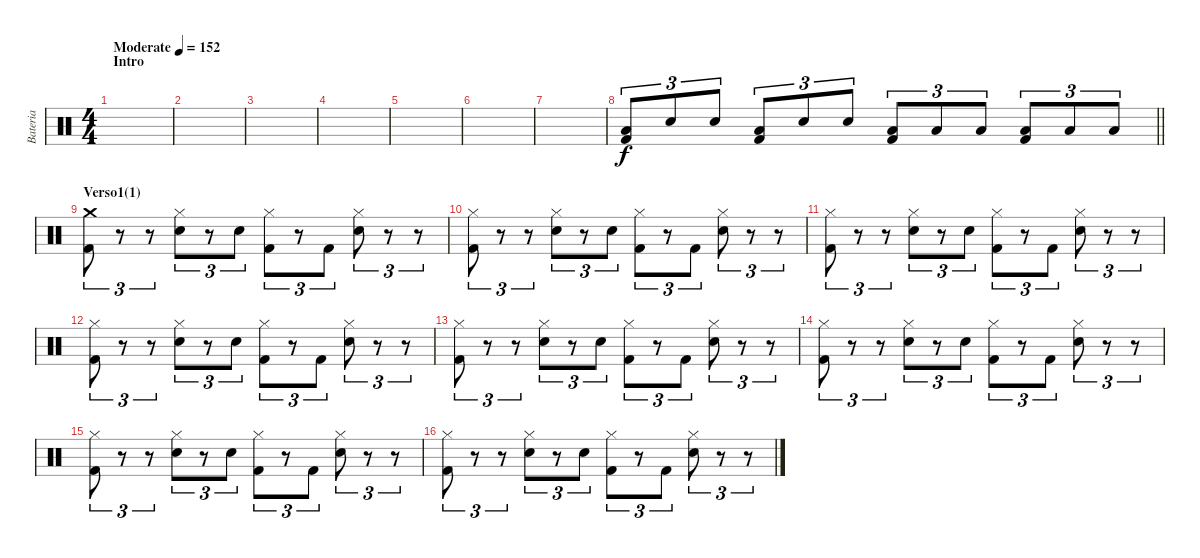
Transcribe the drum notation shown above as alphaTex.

\track ("Bateria" "Bateria") {instrument percussion}
\staff {score}
\articulation defaults
\ts (4 4)
\section ("" "Intro")
\tempo (152 "Moderate")
\clef neutral
\ks c
|
|
|
|
|
|
|
\barLineRight lightlight
("Low Floor Tom (hit)" "Kick (hit) 2").8{tu (3 2)} "Snare (hit) 2".8{tu (3 2)} "Snare (hit) 2".8{tu (3 2)} ("Low Floor Tom (hit)" "Kick (hit) 2").8{tu (3 2)} "Snare (hit) 2".8{tu (3 2)} "Snare (hit) 2".8{tu (3 2)} ("Low Floor Tom (hit)" "Kick (hit) 2").8{tu (3 2)} "Low Tom (hit)".8{tu (3 2)} "Low Tom (hit)".8{tu (3 2)} ("Low Floor Tom (hit)" "Kick (hit) 2").8{tu (3 2)} "Low Floor Tom (hit)".8{tu (3 2)} "Low Floor Tom (hit)".8{tu (3 2)} |
\section ("" "Verso1(1)")
("Crash medium (hit)" "Kick (hit) 2").8{tu (3 2)} r.8{tu (3 2)} r.8{tu (3 2)} ("Hi-Hat (closed)" "Snare (hit) 2").8{tu (3 2)} r.8{tu (3 2)} "Snare (hit) 2".8{tu (3 2)} ("Hi-Hat (closed)" "Kick (hit) 2").8{tu (3 2)} r.8{tu (3 2)} "Kick (hit) 2".8{tu (3 2)} ("Hi-Hat (closed)" "Snare (hit) 2").8{tu (3 2)} r.8{tu (3 2)} r.8{tu (3 2)} |
("Hi-Hat (closed)" "Kick (hit) 2").8{tu (3 2)} r.8{tu (3 2)} r.8{tu (3 2)} ("Hi-Hat (closed)" "Snare (hit) 2").8{tu (3 2)} r.8{tu (3 2)} "Snare (hit) 2".8{tu (3 2)} ("Hi-Hat (closed)" "Kick (hit) 2").8{tu (3 2)} r.8{tu (3 2)} "Kick (hit) 2".8{tu (3 2)} ("Hi-Hat (closed)" "Snare (hit) 2").8{tu (3 2)} r.8{tu (3 2)} r.8{tu (3 2)} |
("Hi-Hat (closed)" "Kick (hit) 2").8{tu (3 2)} r.8{tu (3 2)} r.8{tu (3 2)} ("Hi-Hat (closed)" "Snare (hit) 2").8{tu (3 2)} r.8{tu (3 2)} "Snare (hit) 2".8{tu (3 2)} ("Hi-Hat (closed)" "Kick (hit) 2").8{tu (3 2)} r.8{tu (3 2)} "Kick (hit) 2".8{tu (3 2)} ("Hi-Hat (closed)" "Snare (hit) 2").8{tu (3 2)} r.8{tu (3 2)} r.8{tu (3 2)} |
("Hi-Hat (closed)" "Kick (hit) 2").8{tu (3 2)} r.8{tu (3 2)} r.8{tu (3 2)} ("Hi-Hat (closed)" "Snare (hit) 2").8{tu (3 2)} r.8{tu (3 2)} "Snare (hit) 2".8{tu (3 2)} ("Hi-Hat (closed)" "Kick (hit) 2").8{tu (3 2)} r.8{tu (3 2)} "Kick (hit) 2".8{tu (3 2)} ("Hi-Hat (closed)" "Snare (hit) 2").8{tu (3 2)} r.8{tu (3 2)} r.8{tu (3 2)} |
("Hi-Hat (closed)" "Kick (hit) 2").8{tu (3 2)} r.8{tu (3 2)} r.8{tu (3 2)} ("Hi-Hat (closed)" "Snare (hit) 2").8{tu (3 2)} r.8{tu (3 2)} "Snare (hit) 2".8{tu (3 2)} ("Hi-Hat (closed)" "Kick (hit) 2").8{tu (3 2)} r.8{tu (3 2)} "Kick (hit) 2".8{tu (3 2)} ("Hi-Hat (closed)" "Snare (hit) 2").8{tu (3 2)} r.8{tu (3 2)} r.8{tu (3 2)} |
("Hi-Hat (closed)" "Kick (hit) 2").8{tu (3 2)} r.8{tu (3 2)} r.8{tu (3 2)} ("Hi-Hat (closed)" "Snare (hit) 2").8{tu (3 2)} r.8{tu (3 2)} "Snare (hit) 2".8{tu (3 2)} ("Hi-Hat (closed)" "Kick (hit) 2").8{tu (3 2)} r.8{tu (3 2)} "Kick (hit) 2".8{tu (3 2)} ("Hi-Hat (closed)" "Snare (hit) 2").8{tu (3 2)} r.8{tu (3 2)} r.8{tu (3 2)} |
("Hi-Hat (closed)" "Kick (hit) 2").8{tu (3 2)} r.8{tu (3 2)} r.8{tu (3 2)} ("Hi-Hat (closed)" "Snare (hit) 2").8{tu (3 2)} r.8{tu (3 2)} "Snare (hit) 2".8{tu (3 2)} ("Hi-Hat (closed)" "Kick (hit) 2").8{tu (3 2)} r.8{tu (3 2)} "Kick (hit) 2".8{tu (3 2)} ("Hi-Hat (closed)" "Snare (hit) 2").8{tu (3 2)} r.8{tu (3 2)} r.8{tu (3 2)} |
("Hi-Hat (closed)" "Kick (hit) 2").8{tu (3 2)} r.8{tu (3 2)} r.8{tu (3 2)} ("Hi-Hat (closed)" "Snare (hit) 2").8{tu (3 2)} r.8{tu (3 2)} "Snare (hit) 2".8{tu (3 2)} ("Hi-Hat (closed)" "Kick (hit) 2").8{tu (3 2)} r.8{tu (3 2)} "Kick (hit) 2".8{tu (3 2)} ("Hi-Hat (closed)" "Snare (hit) 2").8{tu (3 2)} r.8{tu (3 2)} r.8{tu (3 2)}
